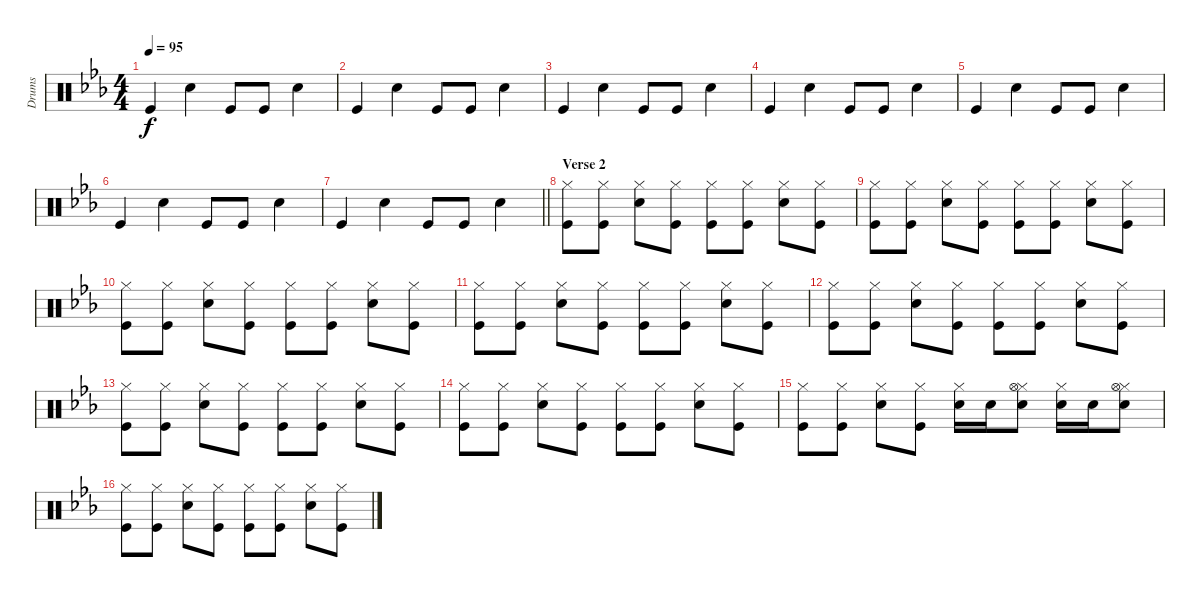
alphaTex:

\track ("Drums" "Drums") {instrument percussion}
\staff {score}
\articulation defaults
\ts (4 4)
\tempo 95
\clef neutral
\ks cminor "Kick (hit)".4{dy f} "Snare (hit) 2".4 "Kick (hit)".8 "Kick (hit)".8 "Snare (hit) 2".4
|
"Kick (hit)".4 "Snare (hit) 2".4 "Kick (hit)".8 "Kick (hit)".8 "Snare (hit) 2".4 |
"Kick (hit)".4 "Snare (hit) 2".4 "Kick (hit)".8 "Kick (hit)".8 "Snare (hit) 2".4 |
"Kick (hit)".4 "Snare (hit) 2".4 "Kick (hit)".8 "Kick (hit)".8 "Snare (hit) 2".4 |
"Kick (hit)".4 "Snare (hit) 2".4 "Kick (hit)".8 "Kick (hit)".8 "Snare (hit) 2".4 |
"Kick (hit)".4 "Snare (hit) 2".4 "Kick (hit)".8 "Kick (hit)".8 "Snare (hit) 2".4 |
\barLineRight lightlight "Kick (hit)".4 "Snare (hit) 2".4 "Kick (hit)".8 "Kick (hit)".8 "Snare (hit) 2".4
|
\section ("" "Verse 2")
("Hi-Hat (closed)" "Kick (hit)").8{volume 16} ("Hi-Hat (closed)" "Kick (hit)").8 ("Hi-Hat (closed)" "Electric Snare (hit)").8 ("Hi-Hat (closed)" "Kick (hit)").8 ("Hi-Hat (closed)" "Kick (hit)").8 ("Hi-Hat (closed)" "Kick (hit)").8 ("Hi-Hat (closed)" "Electric Snare (hit)").8 ("Hi-Hat (closed)" "Kick (hit)").8 |
("Hi-Hat (closed)" "Kick (hit)").8 ("Hi-Hat (closed)" "Kick (hit)").8 ("Hi-Hat (closed)" "Electric Snare (hit)").8 ("Hi-Hat (closed)" "Kick (hit)").8 ("Hi-Hat (closed)" "Kick (hit)").8 ("Hi-Hat (closed)" "Kick (hit)").8 ("Hi-Hat (closed)" "Electric Snare (hit)").8 ("Hi-Hat (closed)" "Kick (hit)").8 |
("Hi-Hat (closed)" "Kick (hit)").8 ("Hi-Hat (closed)" "Kick (hit)").8 ("Hi-Hat (closed)" "Electric Snare (hit)").8 ("Hi-Hat (closed)" "Kick (hit)").8 ("Hi-Hat (closed)" "Kick (hit)").8 ("Hi-Hat (closed)" "Kick (hit)").8 ("Hi-Hat (closed)" "Electric Snare (hit)").8 ("Hi-Hat (closed)" "Kick (hit)").8 |
("Hi-Hat (closed)" "Kick (hit)").8 ("Hi-Hat (closed)" "Kick (hit)").8 ("Hi-Hat (closed)" "Electric Snare (hit)").8 ("Hi-Hat (closed)" "Kick (hit)").8 ("Hi-Hat (closed)" "Kick (hit)").8 ("Hi-Hat (closed)" "Kick (hit)").8 ("Hi-Hat (closed)" "Electric Snare (hit)").8 ("Hi-Hat (closed)" "Kick (hit)").8 |
("Hi-Hat (closed)" "Kick (hit)").8 ("Hi-Hat (closed)" "Kick (hit)").8 ("Hi-Hat (closed)" "Electric Snare (hit)").8 ("Hi-Hat (closed)" "Kick (hit)").8 ("Hi-Hat (closed)" "Kick (hit)").8 ("Hi-Hat (closed)" "Kick (hit)").8 ("Hi-Hat (closed)" "Electric Snare (hit)").8 ("Hi-Hat (closed)" "Kick (hit)").8 |
("Hi-Hat (closed)" "Kick (hit)").8 ("Hi-Hat (closed)" "Kick (hit)").8 ("Hi-Hat (closed)" "Electric Snare (hit)").8 ("Hi-Hat (closed)" "Kick (hit)").8 ("Hi-Hat (closed)" "Kick (hit)").8 ("Hi-Hat (closed)" "Kick (hit)").8 ("Hi-Hat (closed)" "Electric Snare (hit)").8 ("Hi-Hat (closed)" "Kick (hit)").8 |
("Hi-Hat (closed)" "Kick (hit)").8 ("Hi-Hat (closed)" "Kick (hit)").8 ("Hi-Hat (closed)" "Electric Snare (hit)").8 ("Hi-Hat (closed)" "Kick (hit)").8 ("Hi-Hat (closed)" "Kick (hit)").8 ("Hi-Hat (closed)" "Kick (hit)").8 ("Hi-Hat (closed)" "Electric Snare (hit)").8 ("Hi-Hat (closed)" "Kick (hit)").8 |
("Hi-Hat (closed)" "Kick (hit)").8 ("Hi-Hat (closed)" "Kick (hit)").8 ("Hi-Hat (closed)" "Electric Snare (hit)").8 ("Hi-Hat (closed)" "Kick (hit)").8 ("Hi-Hat (closed)" "Snare (hit) 2").16 "Snare (hit) 2".16 ("Hi-Hat (closed)" "Electric Snare (hit)" "Hi-Hat (open)").8 ("Hi-Hat (closed)" "Snare (hit) 2").16 "Snare (hit) 2".16 ("Hi-Hat (closed)" "Electric Snare (hit)" "Hi-Hat (open)").8 |
("Hi-Hat (closed)" "Kick (hit)").8 ("Hi-Hat (closed)" "Kick (hit)").8 ("Hi-Hat (closed)" "Electric Snare (hit)").8 ("Hi-Hat (closed)" "Kick (hit)").8 ("Hi-Hat (closed)" "Kick (hit)").8 ("Hi-Hat (closed)" "Kick (hit)").8 ("Hi-Hat (closed)" "Electric Snare (hit)").8 ("Hi-Hat (closed)" "Kick (hit)").8
